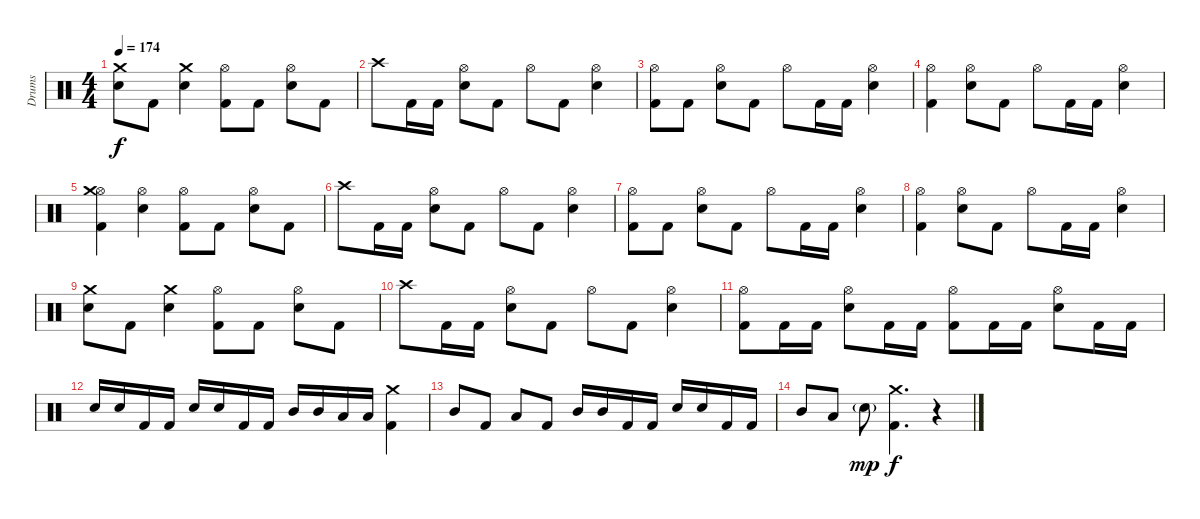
\track ("Drums" "Drums") {instrument percussion}
\staff {score}
\articulation defaults
\ts (4 4)
\tempo 174
\clef neutral
\ks c
("Crash medium (hit)" "Snare (hit) 2").8{dy f} "Kick (hit) 2".8 ("Crash medium (hit)" "Snare (hit) 2").4 ("Hi-Hat (open)" "Kick (hit) 2").8 "Kick (hit) 2".8 ("Hi-Hat (open)" "Snare (hit) 2").8 "Kick (hit) 2".8 |
"Crash high (hit)".8 "Kick (hit) 2".16 "Kick (hit) 2".16 ("Hi-Hat (open)" "Snare (hit) 2").8 "Kick (hit) 2".8 "Hi-Hat (open)".8 "Kick (hit) 2".8 ("Hi-Hat (open)" "Snare (hit) 2").4 |
("Hi-Hat (open)" "Kick (hit) 2").8 "Kick (hit) 2".8 ("Hi-Hat (open)" "Snare (hit) 2").8 "Kick (hit) 2".8 "Hi-Hat (open)".8 "Kick (hit) 2".16 "Kick (hit) 2".16 ("Hi-Hat (open)" "Snare (hit) 2").4 |
("Hi-Hat (open)" "Kick (hit) 2").4 ("Hi-Hat (open)" "Snare (hit) 2").8 "Kick (hit) 2".8 "Hi-Hat (open)".8 "Kick (hit) 2".16 "Kick (hit) 2".16 ("Hi-Hat (open)" "Snare (hit) 2").4 |
("Hi-Hat (open)" "Crash medium (hit)" "Kick (hit) 2").4 ("Hi-Hat (open)" "Snare (hit) 2").4 ("Hi-Hat (open)" "Kick (hit) 2").8 "Kick (hit) 2".8 ("Hi-Hat (open)" "Snare (hit) 2").8 "Kick (hit) 2".8 |
"Crash high (hit)".8 "Kick (hit) 2".16 "Kick (hit) 2".16 ("Hi-Hat (open)" "Snare (hit) 2").8 "Kick (hit) 2".8 "Hi-Hat (open)".8 "Kick (hit) 2".8 ("Hi-Hat (open)" "Snare (hit) 2").4 |
("Hi-Hat (open)" "Kick (hit) 2").8 "Kick (hit) 2".8 ("Hi-Hat (open)" "Snare (hit) 2").8 "Kick (hit) 2".8 "Hi-Hat (open)".8 "Kick (hit) 2".16 "Kick (hit) 2".16 ("Hi-Hat (open)" "Snare (hit) 2").4 |
("Hi-Hat (open)" "Kick (hit) 2").4 ("Hi-Hat (open)" "Snare (hit) 2").8 "Kick (hit) 2".8 "Hi-Hat (open)".8 "Kick (hit) 2".16 "Kick (hit) 2".16 ("Hi-Hat (open)" "Snare (hit) 2").4 |
("Crash medium (hit)" "Snare (hit) 2").8 "Kick (hit) 2".8 ("Crash medium (hit)" "Snare (hit) 2").4 ("Hi-Hat (open)" "Kick (hit) 2").8 "Kick (hit) 2".8 ("Hi-Hat (open)" "Snare (hit) 2").8 "Kick (hit) 2".8 |
"Crash high (hit)".8 "Kick (hit) 2".16 "Kick (hit) 2".16 ("Hi-Hat (open)" "Snare (hit) 2").8 "Kick (hit) 2".8 "Hi-Hat (open)".8 "Kick (hit) 2".8 ("Hi-Hat (open)" "Snare (hit) 2").4 |
("Hi-Hat (open)" "Kick (hit) 2").8 "Kick (hit) 2".16 "Kick (hit) 2".16 ("Hi-Hat (open)" "Snare (hit) 2").8 "Kick (hit) 2".16 "Kick (hit) 2".16 ("Hi-Hat (open)" "Kick (hit) 2").8 "Kick (hit) 2".16 "Kick (hit) 2".16 ("Hi-Hat (open)" "Snare (hit) 2").8 "Kick (hit) 2".16 "Kick (hit) 2".16 |
"Snare (hit) 2".16 "Snare (hit) 2".16 "Kick (hit) 2".16 "Kick (hit) 2".16 "Snare (hit) 2".16 "Snare (hit) 2".16 "Kick (hit) 2".16 "Kick (hit) 2".16 "Mid Tom (hit)".16 "Mid Tom (hit)".16 "Low Tom (hit)".16 "Low Tom (hit)".16 ("Crash medium (hit)" "Kick (hit) 2").4 |
"Mid Tom (hit)".8 "Kick (hit) 2".8 "Low Tom (hit)".8 "Kick (hit) 2".8 "Mid Tom (hit)".16 "Mid Tom (hit)".16 "Kick (hit) 2".16 "Kick (hit) 2".16 "Snare (hit) 2".16 "Snare (hit) 2".16 "Kick (hit) 2".16 "Kick (hit) 2".16 |
"Mid Tom (hit)".8 "Low Tom (hit)".8 "Snare (hit) 2"{g}.8{dy mp} ("Crash medium (hit)" "Kick (hit) 2").4{d dy f} r.4
